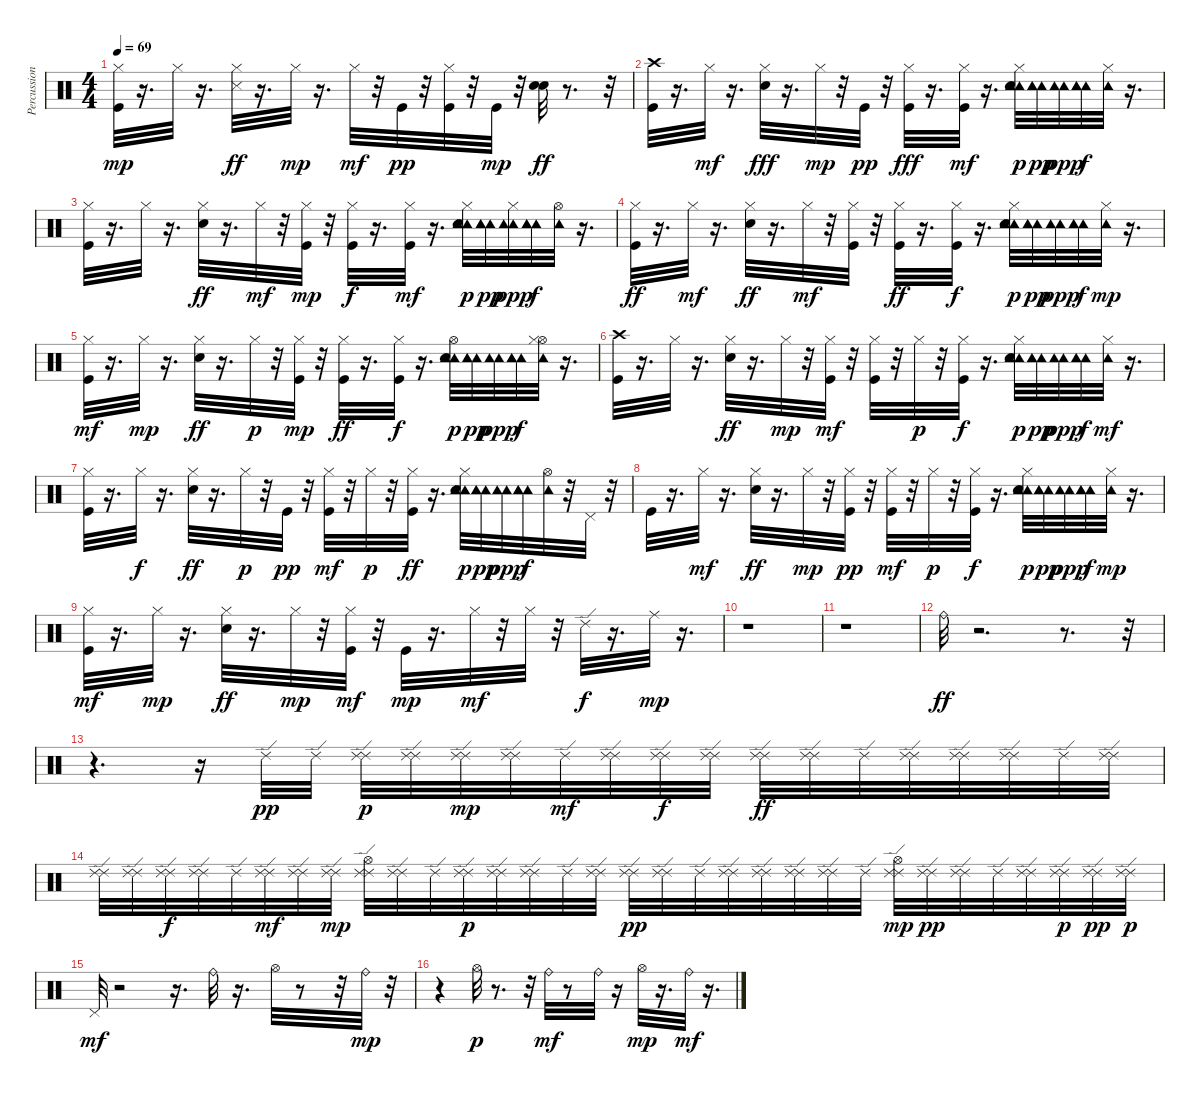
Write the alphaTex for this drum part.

\track ("Percussions" "Percussion") {instrument percussion}
\staff {score}
\articulation defaults
\ts (4 4)
\tempo 69
\clef neutral
\ks c
("Hi-Hat (closed)" "Kick (hit)").32{dy mp} r.16{d} "Hi-Hat (closed)".32 r.16{d} ("Hi-Hat (closed)" "Snare (side stick) 3").32{dy ff} r.16{d} "Hi-Hat (closed)".32{dy mp} r.16{d} "Hi-Hat (closed)".32{dy mf} r.32 "Kick (hit)".32{dy pp} r.32 ("Hi-Hat (closed)" "Kick (hit)").32 r.32 "Kick (hit)".32{dy mp} r.32 ("Electric Snare (hit)" "Electric Snare (hit)").32{dy ff} r.8{d} r.32 |
("Kick (hit)" "Crash high (hit)").32 r.16{d} "Hi-Hat (closed)".32{dy mf} r.16{d} ("Electric Snare (hit)" "Hi-Hat (closed)").32{dy fff} r.16{d} "Hi-Hat (closed)".32{dy mp} r.32 "Kick (hit)".32{dy pp} r.32 ("Kick (hit)" "Hi-Hat (closed)").32{dy fff} r.16{d} ("Hi-Hat (closed)" "Kick (hit)").32{dy mf} r.16{d} ("Tambourine (hit)" "Tambourine (hit)" "Hi-Hat (closed)" "Electric Snare (hit)" "Tambourine (hit)").32{dy p} ("Tambourine (hit)" "Tambourine (hit)" "Tambourine (hit)").32{dy pp} ("Tambourine (hit)" "Tambourine (hit)").32{dy ppp} ("Tambourine (hit)" "Tambourine (hit)" "Tambourine (hit)").32{dy f} ("Tambourine (hit)" "Hi-Hat (closed)").32 r.16{d} |
("Hi-Hat (closed)" "Kick (hit)").32 r.16{d} "Hi-Hat (closed)".32 r.16{d} ("Hi-Hat (closed)" "Electric Snare (hit)").32{dy ff} r.16{d} "Hi-Hat (closed)".32{dy mf} r.32 ("Kick (hit)" "Hi-Hat (closed)").32{dy mp} r.32 ("Kick (hit)" "Hi-Hat (closed)").32{dy f} r.16{d} ("Hi-Hat (closed)" "Kick (hit)").32{dy mf} r.16{d} ("Tambourine (hit)" "Hi-Hat (closed)" "Tambourine (hit)" "Electric Snare (hit)" "Tambourine (hit)").32{dy p} ("Tambourine (hit)" "Tambourine (hit)" "Tambourine (hit)").32{dy pp} ("Tambourine (hit)" "Hi-Hat (closed)" "Tambourine (hit)").32{dy ppp} ("Tambourine (hit)" "Tambourine (hit)" "Tambourine (hit)").32{dy f} ("Tambourine (hit)" "Hi-Hat (open)").32 r.16{d} |
("Kick (hit)" "Hi-Hat (closed)").32{dy ff} r.16{d} "Hi-Hat (closed)".32{dy mf} r.16{d} ("Electric Snare (hit)" "Hi-Hat (closed)").32{dy ff} r.16{d} "Hi-Hat (closed)".32{dy mf} r.32 ("Kick (hit)" "Hi-Hat (closed)").32 r.32 ("Kick (hit)" "Hi-Hat (closed)").32{dy ff} r.16{d} ("Kick (hit)" "Hi-Hat (closed)").32{dy f} r.16{d} ("Tambourine (hit)" "Electric Snare (hit)" "Tambourine (hit)" "Hi-Hat (closed)" "Tambourine (hit)").32{dy p} ("Tambourine (hit)" "Tambourine (hit)" "Tambourine (hit)").32{dy pp} ("Tambourine (hit)" "Tambourine (hit)").32{dy ppp} ("Tambourine (hit)" "Tambourine (hit)" "Tambourine (hit)").32{dy f} ("Tambourine (hit)" "Hi-Hat (closed)").32{dy mp} r.16{d} |
("Hi-Hat (closed)" "Kick (hit)").32{dy mf} r.16{d} "Hi-Hat (closed)".32{dy mp} r.16{d} ("Electric Snare (hit)" "Hi-Hat (closed)").32{dy ff} r.16{d} "Hi-Hat (closed)".32{dy p} r.32 ("Kick (hit)" "Hi-Hat (closed)").32{dy mp} r.32 ("Kick (hit)" "Hi-Hat (closed)").32{dy ff} r.16{d} ("Kick (hit)" "Hi-Hat (closed)").32{dy f} r.16{d} ("Tambourine (hit)" "Hi-Hat (open)" "Electric Snare (hit)" "Tambourine (hit)" "Tambourine (hit)").32{dy p} ("Tambourine (hit)" "Tambourine (hit)" "Tambourine (hit)").32{dy pp} ("Tambourine (hit)" "Tambourine (hit)").32{dy ppp} ("Tambourine (hit)" "Tambourine (hit)" "Tambourine (hit)").32{dy f} ("Tambourine (hit)" "Hi-Hat (open)" "Hi-Hat (closed)").32 r.16{d} |
("Kick (hit)" "Crash high (hit)").32 r.16{d} "Hi-Hat (closed)".32 r.16{d} ("Electric Snare (hit)" "Hi-Hat (closed)").32{dy ff} r.16{d} "Hi-Hat (closed)".32{dy mp} r.32 ("Kick (hit)" "Hi-Hat (closed)").32{dy mf} r.32 ("Kick (hit)" "Hi-Hat (closed)").32 r.32 "Hi-Hat (closed)".32{dy p} r.32 ("Kick (hit)" "Hi-Hat (closed)").32{dy f} r.16{d} ("Tambourine (hit)" "Electric Snare (hit)" "Tambourine (hit)" "Hi-Hat (closed)" "Tambourine (hit)").32{dy p} ("Tambourine (hit)" "Tambourine (hit)" "Tambourine (hit)").32{dy pp} ("Tambourine (hit)" "Tambourine (hit)").32{dy ppp} ("Tambourine (hit)" "Tambourine (hit)" "Tambourine (hit)").32{dy f} ("Tambourine (hit)" "Hi-Hat (closed)").32{dy mf} r.16{d} |
("Kick (hit)" "Hi-Hat (closed)").32 r.16{d} "Hi-Hat (closed)".32{dy f} r.16{d} ("Electric Snare (hit)" "Hi-Hat (closed)").32{dy ff} r.16{d} "Hi-Hat (closed)".32{dy p} r.32 "Kick (hit)".32{dy pp} r.32 ("Hi-Hat (closed)" "Kick (hit)").32{dy mf} r.32 "Hi-Hat (closed)".32{dy p} r.32 ("Hi-Hat (closed)" "Kick (hit)").32{dy ff} r.16{d} ("Tambourine (hit)" "Hi-Hat (closed)" "Tambourine (hit)" "Electric Snare (hit)" "Tambourine (hit)").32{dy p} ("Tambourine (hit)" "Tambourine (hit)" "Tambourine (hit)").32{dy pp} ("Tambourine (hit)" "Tambourine (hit)").32{dy ppp} ("Tambourine (hit)" "Tambourine (hit)" "Tambourine (hit)").32{dy f} ("Tambourine (hit)" "Hi-Hat (open)").32 r.32 "Pedal Hi-Hat (hit)".32 r.32 |
"Kick (hit)".32 r.16{d} "Hi-Hat (closed)".32{dy mf} r.16{d} ("Hi-Hat (closed)" "Electric Snare (hit)").32{dy ff} r.16{d} "Hi-Hat (closed)".32{dy mp} r.32 ("Hi-Hat (closed)" "Kick (hit)").32{dy pp} r.32 ("Hi-Hat (closed)" "Kick (hit)").32{dy mf} r.32 "Hi-Hat (closed)".32{dy p} r.32 ("Hi-Hat (closed)" "Kick (hit)").32{dy f} r.16{d} ("Tambourine (hit)" "Hi-Hat (closed)" "Tambourine (hit)" "Electric Snare (hit)" "Tambourine (hit)").32{dy p} ("Tambourine (hit)" "Tambourine (hit)" "Tambourine (hit)").32{dy pp} ("Tambourine (hit)" "Tambourine (hit)").32{dy ppp} ("Tambourine (hit)" "Tambourine (hit)" "Tambourine (hit)").32{dy f} ("Tambourine (hit)" "Hi-Hat (closed)").32{dy mp} r.16{d} |
("Hi-Hat (closed)" "Kick (hit)").32{dy mf} r.16{d} "Hi-Hat (closed)".32{dy mp} r.16{d} ("Electric Snare (hit)" "Hi-Hat (closed)").32{dy ff} r.16{d} "Hi-Hat (closed)".32{dy mp} r.32 ("Kick (hit)" "Hi-Hat (closed)").32{dy mf} r.32 "Kick (hit)".32{dy mp} r.16{d} "Hi-Hat (closed)".32{dy mf} r.32 "Hi-Hat (closed)".32 r.32 "Ride (edge) 2".32{dy f} r.16{d} "Ride (middle)".32{dy mp} r.16{d} |
r.1 |
r.1 |
"Ride (bell)".32{dy ff} r.2{d} r.8{d} r.32 |
r.4{d} r.16 "Ride (edge) 2".32{dy pp} "Ride (edge) 2".32 ("Ride (edge) 2" "Ride (edge) 2").32{dy p} ("Ride (edge) 2" "Ride (edge) 2").32 ("Ride (edge) 2" "Ride (edge) 2").32{dy mp} ("Ride (edge) 2" "Ride (edge) 2").32 "Ride (edge) 2".32{dy mf} ("Ride (edge) 2" "Ride (edge) 2").32 ("Ride (edge) 2" "Ride (edge) 2").32{dy f} ("Ride (edge) 2" "Ride (edge) 2").32 ("Ride (edge) 2" "Ride (edge) 2").32{dy ff} ("Ride (edge) 2" "Ride (edge) 2").32 "Ride (edge) 2".32 ("Ride (edge) 2" "Ride (edge) 2").32 ("Ride (edge) 2" "Ride (edge) 2").32 ("Ride (edge) 2" "Ride (edge) 2").32 "Ride (edge) 2".32 ("Ride (edge) 2" "Ride (edge) 2").32 |
("Ride (edge) 2" "Ride (edge) 2").32 ("Ride (edge) 2" "Ride (edge) 2").32 ("Ride (edge) 2" "Ride (edge) 2").32{dy f} ("Ride (edge) 2" "Ride (edge) 2").32 "Ride (edge) 2".32 ("Ride (edge) 2" "Ride (edge) 2").32{dy mf} ("Ride (edge) 2" "Ride (edge) 2").32 ("Ride (edge) 2" "Ride (edge) 2").32{dy mp} ("Ride (edge) 2" "Hi-Hat (open)" "Ride (edge) 2").32 ("Ride (edge) 2" "Ride (edge) 2").32 "Ride (edge) 2".32 ("Ride (edge) 2" "Ride (edge) 2").32{dy p} ("Ride (edge) 2" "Ride (edge) 2").32 ("Ride (edge) 2" "Ride (edge) 2").32 "Ride (edge) 2".32 ("Ride (edge) 2" "Ride (edge) 2").32 ("Ride (edge) 2" "Ride (edge) 2").32{dy pp} ("Ride (edge) 2" "Ride (edge) 2").32 "Ride (edge) 2".32 ("Ride (edge) 2" "Ride (edge) 2").32 ("Ride (edge) 2" "Ride (edge) 2").32 ("Ride (edge) 2" "Ride (edge) 2").32 ("Ride (edge) 2" "Ride (edge) 2").32 "Ride (edge) 2".32 ("Ride (edge) 2" "Ride (edge) 2" "Hi-Hat (open)").32{dy mp} ("Ride (edge) 2" "Ride (edge) 2").32{dy pp} ("Ride (edge) 2" "Ride (edge) 2").32 "Ride (edge) 2".32 ("Ride (edge) 2" "Ride (edge) 2").32 ("Ride (edge) 2" "Ride (edge) 2").32{dy p} ("Ride (edge) 2" "Ride (edge) 2").32{dy pp} ("Ride (edge) 2" "Ride (edge) 2").32{dy p} |
"Pedal Hi-Hat (hit)".32{dy mf} r.2 r.16{d} "Ride (bell)".32 r.16{d} "Hi-Hat (open)".32 r.8 r.32 "Ride (bell)".32{dy mp} r.32 |
r.4 "Hi-Hat (open)".32{dy p} r.8{d} r.32 "Ride (bell)".32{dy mf} r.8 "Ride (bell)".32 r.16 "Hi-Hat (open)".32{dy mp} r.16{d} "Ride (bell)".32{dy mf} r.16{d}
